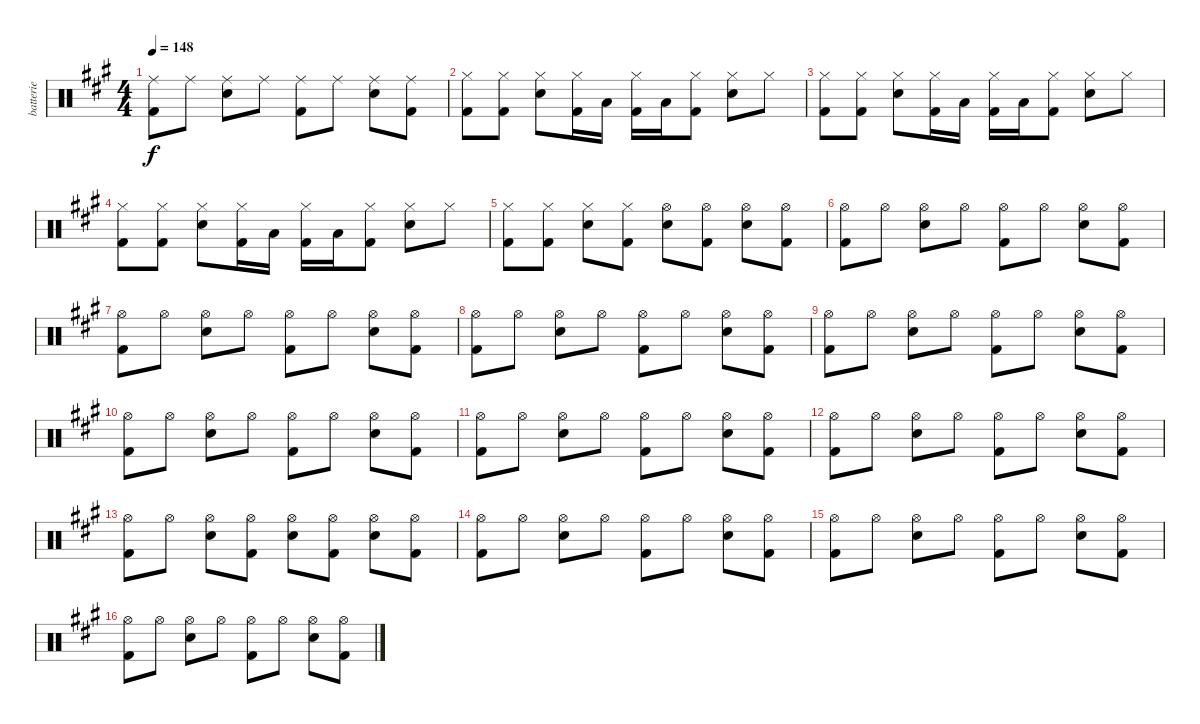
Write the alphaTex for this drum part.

\track ("batterie" "batterie") {instrument percussion}
\staff {score}
\articulation defaults
\ts (4 4)
\tempo 148
\clef neutral
\ks a
("Kick (hit) 2" "Ride (middle)").8{dy f} "Ride (middle)".8 ("Snare (hit) 2" "Ride (middle)").8 "Ride (middle)".8 ("Kick (hit) 2" "Ride (middle)").8 "Ride (middle)".8 ("Snare (hit) 2" "Ride (middle)").8 ("Kick (hit) 2" "Ride (middle)").8 |
("Kick (hit) 2" "Hi-Hat (closed)").8 ("Kick (hit) 2" "Hi-Hat (closed)").8 ("Snare (hit) 2" "Hi-Hat (closed)").8 ("Kick (hit) 2" "Hi-Hat (closed)").16 "Low Tom (hit)".16 ("Kick (hit) 2" "Hi-Hat (closed)").16 "Low Tom (hit)".16 ("Kick (hit) 2" "Hi-Hat (closed)").8 ("Snare (hit) 2" "Hi-Hat (closed)").8 "Hi-Hat (closed)".8 |
("Kick (hit) 2" "Hi-Hat (closed)").8 ("Kick (hit) 2" "Hi-Hat (closed)").8 ("Snare (hit) 2" "Hi-Hat (closed)").8 ("Kick (hit) 2" "Hi-Hat (closed)").16 "Low Tom (hit)".16 ("Kick (hit) 2" "Hi-Hat (closed)").16 "Low Tom (hit)".16 ("Kick (hit) 2" "Hi-Hat (closed)").8 ("Snare (hit) 2" "Hi-Hat (closed)").8 "Hi-Hat (closed)".8 |
("Kick (hit) 2" "Hi-Hat (closed)").8 ("Kick (hit) 2" "Hi-Hat (closed)").8 ("Snare (hit) 2" "Hi-Hat (closed)").8 ("Kick (hit) 2" "Hi-Hat (closed)").16 "Low Tom (hit)".16 ("Kick (hit) 2" "Hi-Hat (closed)").16 "Low Tom (hit)".16 ("Kick (hit) 2" "Hi-Hat (closed)").8 ("Snare (hit) 2" "Hi-Hat (closed)").8 "Hi-Hat (closed)".8 |
("Kick (hit) 2" "Hi-Hat (closed)").8 ("Kick (hit) 2" "Hi-Hat (closed)").8 ("Snare (hit) 2" "Hi-Hat (closed)").8 ("Kick (hit) 2" "Hi-Hat (closed)").8 ("Snare (hit) 2" "Hi-Hat (open)").8 ("Kick (hit) 2" "Hi-Hat (open)").8 ("Snare (hit) 2" "Hi-Hat (open)").8 ("Kick (hit) 2" "Hi-Hat (open)").8 |
("Kick (hit) 2" "Hi-Hat (open)").8 "Hi-Hat (open)".8 ("Snare (hit) 2" "Hi-Hat (open)").8 "Hi-Hat (open)".8 ("Kick (hit) 2" "Hi-Hat (open)").8 "Hi-Hat (open)".8 ("Snare (hit) 2" "Hi-Hat (open)").8 ("Kick (hit) 2" "Hi-Hat (open)").8 |
("Kick (hit) 2" "Hi-Hat (open)").8 "Hi-Hat (open)".8 ("Snare (hit) 2" "Hi-Hat (open)").8 "Hi-Hat (open)".8 ("Kick (hit) 2" "Hi-Hat (open)").8 "Hi-Hat (open)".8 ("Snare (hit) 2" "Hi-Hat (open)").8 ("Kick (hit) 2" "Hi-Hat (open)").8 |
("Kick (hit) 2" "Hi-Hat (open)").8 "Hi-Hat (open)".8 ("Snare (hit) 2" "Hi-Hat (open)").8 "Hi-Hat (open)".8 ("Kick (hit) 2" "Hi-Hat (open)").8 "Hi-Hat (open)".8 ("Snare (hit) 2" "Hi-Hat (open)").8 ("Kick (hit) 2" "Hi-Hat (open)").8 |
("Kick (hit) 2" "Hi-Hat (open)").8 "Hi-Hat (open)".8 ("Snare (hit) 2" "Hi-Hat (open)").8 "Hi-Hat (open)".8 ("Kick (hit) 2" "Hi-Hat (open)").8 "Hi-Hat (open)".8 ("Snare (hit) 2" "Hi-Hat (open)").8 ("Kick (hit) 2" "Hi-Hat (open)").8 |
("Kick (hit) 2" "Hi-Hat (open)").8 "Hi-Hat (open)".8 ("Snare (hit) 2" "Hi-Hat (open)").8 "Hi-Hat (open)".8 ("Kick (hit) 2" "Hi-Hat (open)").8 "Hi-Hat (open)".8 ("Snare (hit) 2" "Hi-Hat (open)").8 ("Kick (hit) 2" "Hi-Hat (open)").8 |
("Kick (hit) 2" "Hi-Hat (open)").8 "Hi-Hat (open)".8 ("Snare (hit) 2" "Hi-Hat (open)").8 "Hi-Hat (open)".8 ("Kick (hit) 2" "Hi-Hat (open)").8 "Hi-Hat (open)".8 ("Snare (hit) 2" "Hi-Hat (open)").8 ("Kick (hit) 2" "Hi-Hat (open)").8 |
("Kick (hit) 2" "Hi-Hat (open)").8 "Hi-Hat (open)".8 ("Snare (hit) 2" "Hi-Hat (open)").8 "Hi-Hat (open)".8 ("Kick (hit) 2" "Hi-Hat (open)").8 "Hi-Hat (open)".8 ("Snare (hit) 2" "Hi-Hat (open)").8 ("Kick (hit) 2" "Hi-Hat (open)").8 |
("Kick (hit) 2" "Hi-Hat (open)").8 "Hi-Hat (open)".8 ("Snare (hit) 2" "Hi-Hat (open)").8 ("Kick (hit) 2" "Hi-Hat (open)").8 ("Snare (hit) 2" "Hi-Hat (open)").8 ("Kick (hit) 2" "Hi-Hat (open)").8 ("Snare (hit) 2" "Hi-Hat (open)").8 ("Kick (hit) 2" "Hi-Hat (open)").8 |
("Kick (hit) 2" "Hi-Hat (open)").8 "Hi-Hat (open)".8 ("Snare (hit) 2" "Hi-Hat (open)").8 "Hi-Hat (open)".8 ("Kick (hit) 2" "Hi-Hat (open)").8 "Hi-Hat (open)".8 ("Snare (hit) 2" "Hi-Hat (open)").8 ("Kick (hit) 2" "Hi-Hat (open)").8 |
("Kick (hit) 2" "Hi-Hat (open)").8 "Hi-Hat (open)".8 ("Snare (hit) 2" "Hi-Hat (open)").8 "Hi-Hat (open)".8 ("Kick (hit) 2" "Hi-Hat (open)").8 "Hi-Hat (open)".8 ("Snare (hit) 2" "Hi-Hat (open)").8 ("Kick (hit) 2" "Hi-Hat (open)").8 |
("Kick (hit) 2" "Hi-Hat (open)").8 "Hi-Hat (open)".8 ("Snare (hit) 2" "Hi-Hat (open)").8 "Hi-Hat (open)".8 ("Kick (hit) 2" "Hi-Hat (open)").8 "Hi-Hat (open)".8 ("Snare (hit) 2" "Hi-Hat (open)").8 ("Kick (hit) 2" "Hi-Hat (open)").8
